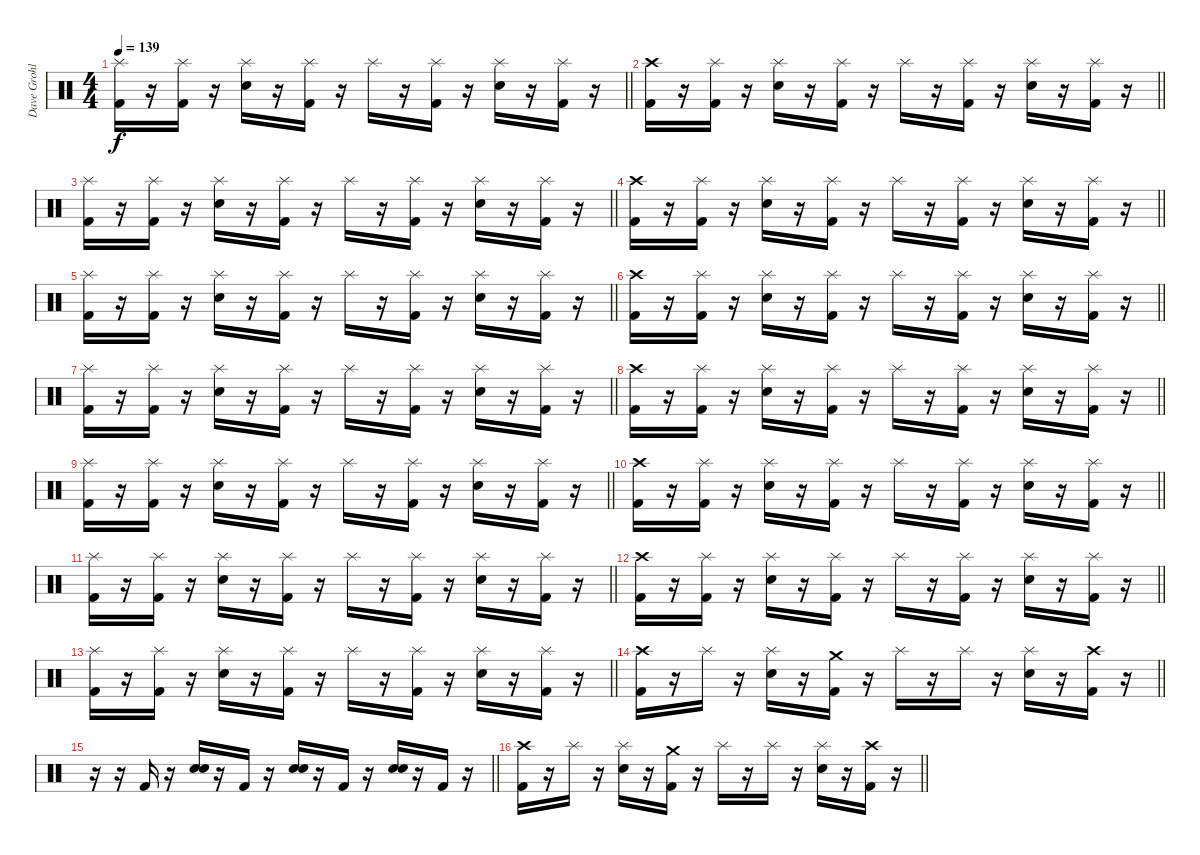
\track ("Dave Grohl" "Dave Grohl") {instrument percussion}
\staff {score}
\articulation defaults
\ts (4 4)
\tempo 139
\clef neutral
\barLineRight lightlight
\ks c
("Splash (hit)" "Kick (hit) 2").16{dy f} r.16 ("Splash (hit)" "Kick (hit) 2").16 r.16 ("Splash (hit)" "Electric Snare (hit)").16 r.16 ("Splash (hit)" "Kick (hit) 2").16 r.16 "Splash (hit)".16 r.16 ("Splash (hit)" "Kick (hit) 2").16 r.16 ("Splash (hit)" "Electric Snare (hit)").16 r.16 ("Splash (hit)" "Kick (hit) 2").16 r.16 |
\barLineRight lightlight
("Crash high (hit)" "Kick (hit) 2").16 r.16 ("Splash (hit)" "Kick (hit) 2").16 r.16 ("Splash (hit)" "Electric Snare (hit)").16 r.16 ("Splash (hit)" "Kick (hit) 2").16 r.16 "Splash (hit)".16 r.16 ("Splash (hit)" "Kick (hit) 2").16 r.16 ("Splash (hit)" "Electric Snare (hit)").16 r.16 ("Splash (hit)" "Kick (hit) 2").16 r.16 |
\barLineRight lightlight
("Splash (hit)" "Kick (hit) 2").16 r.16 ("Splash (hit)" "Kick (hit) 2").16 r.16 ("Splash (hit)" "Electric Snare (hit)").16 r.16 ("Splash (hit)" "Kick (hit) 2").16 r.16 "Splash (hit)".16 r.16 ("Splash (hit)" "Kick (hit) 2").16 r.16 ("Splash (hit)" "Electric Snare (hit)").16 r.16 ("Splash (hit)" "Kick (hit) 2").16 r.16 |
\barLineRight lightlight
("Crash high (hit)" "Kick (hit) 2").16 r.16 ("Splash (hit)" "Kick (hit) 2").16 r.16 ("Splash (hit)" "Electric Snare (hit)").16 r.16 ("Splash (hit)" "Kick (hit) 2").16 r.16 "Splash (hit)".16 r.16 ("Splash (hit)" "Kick (hit) 2").16 r.16 ("Splash (hit)" "Electric Snare (hit)").16 r.16 ("Splash (hit)" "Kick (hit) 2").16 r.16 |
\barLineRight lightlight
("Splash (hit)" "Kick (hit) 2").16 r.16 ("Splash (hit)" "Kick (hit) 2").16 r.16 ("Splash (hit)" "Electric Snare (hit)").16 r.16 ("Splash (hit)" "Kick (hit) 2").16 r.16 "Splash (hit)".16 r.16 ("Splash (hit)" "Kick (hit) 2").16 r.16 ("Splash (hit)" "Electric Snare (hit)").16 r.16 ("Splash (hit)" "Kick (hit) 2").16 r.16 |
\barLineRight lightlight
("Crash high (hit)" "Kick (hit) 2").16 r.16 ("Splash (hit)" "Kick (hit) 2").16 r.16 ("Splash (hit)" "Electric Snare (hit)").16 r.16 ("Splash (hit)" "Kick (hit) 2").16 r.16 "Splash (hit)".16 r.16 ("Splash (hit)" "Kick (hit) 2").16 r.16 ("Splash (hit)" "Electric Snare (hit)").16 r.16 ("Splash (hit)" "Kick (hit) 2").16 r.16 |
\barLineRight lightlight
("Splash (hit)" "Kick (hit) 2").16 r.16 ("Splash (hit)" "Kick (hit) 2").16 r.16 ("Splash (hit)" "Electric Snare (hit)").16 r.16 ("Splash (hit)" "Kick (hit) 2").16 r.16 "Splash (hit)".16 r.16 ("Splash (hit)" "Kick (hit) 2").16 r.16 ("Splash (hit)" "Electric Snare (hit)").16 r.16 ("Splash (hit)" "Kick (hit) 2").16 r.16 |
\barLineRight lightlight
("Crash high (hit)" "Kick (hit) 2").16 r.16 ("Splash (hit)" "Kick (hit) 2").16 r.16 ("Splash (hit)" "Electric Snare (hit)").16 r.16 ("Splash (hit)" "Kick (hit) 2").16 r.16 "Splash (hit)".16 r.16 ("Splash (hit)" "Kick (hit) 2").16 r.16 ("Splash (hit)" "Electric Snare (hit)").16 r.16 ("Splash (hit)" "Kick (hit) 2").16 r.16 |
\barLineRight lightlight
("Splash (hit)" "Kick (hit) 2").16 r.16 ("Splash (hit)" "Kick (hit) 2").16 r.16 ("Splash (hit)" "Electric Snare (hit)").16 r.16 ("Splash (hit)" "Kick (hit) 2").16 r.16 "Splash (hit)".16 r.16 ("Splash (hit)" "Kick (hit) 2").16 r.16 ("Splash (hit)" "Electric Snare (hit)").16 r.16 ("Splash (hit)" "Kick (hit) 2").16 r.16 |
\barLineRight lightlight
("Crash high (hit)" "Kick (hit) 2").16 r.16 ("Splash (hit)" "Kick (hit) 2").16 r.16 ("Splash (hit)" "Electric Snare (hit)").16 r.16 ("Splash (hit)" "Kick (hit) 2").16 r.16 "Splash (hit)".16 r.16 ("Splash (hit)" "Kick (hit) 2").16 r.16 ("Splash (hit)" "Electric Snare (hit)").16 r.16 ("Splash (hit)" "Kick (hit) 2").16 r.16 |
\barLineRight lightlight
("Splash (hit)" "Kick (hit) 2").16 r.16 ("Splash (hit)" "Kick (hit) 2").16 r.16 ("Splash (hit)" "Electric Snare (hit)").16 r.16 ("Splash (hit)" "Kick (hit) 2").16 r.16 "Splash (hit)".16 r.16 ("Splash (hit)" "Kick (hit) 2").16 r.16 ("Splash (hit)" "Electric Snare (hit)").16 r.16 ("Splash (hit)" "Kick (hit) 2").16 r.16 |
\barLineRight lightlight
("Crash high (hit)" "Kick (hit) 2").16 r.16 ("Splash (hit)" "Kick (hit) 2").16 r.16 ("Splash (hit)" "Electric Snare (hit)").16 r.16 ("Splash (hit)" "Kick (hit) 2").16 r.16 "Splash (hit)".16 r.16 ("Splash (hit)" "Kick (hit) 2").16 r.16 ("Splash (hit)" "Electric Snare (hit)").16 r.16 ("Splash (hit)" "Kick (hit) 2").16 r.16 |
\barLineRight lightlight
("Splash (hit)" "Kick (hit) 2").16 r.16 ("Splash (hit)" "Kick (hit) 2").16 r.16 ("Splash (hit)" "Electric Snare (hit)").16 r.16 ("Splash (hit)" "Kick (hit) 2").16 r.16 "Splash (hit)".16 r.16 ("Splash (hit)" "Kick (hit) 2").16 r.16 ("Splash (hit)" "Electric Snare (hit)").16 r.16 ("Splash (hit)" "Kick (hit) 2").16 r.16 |
\barLineRight lightlight
("Crash high (hit)" "Kick (hit) 2").16 r.16 "Splash (hit)".16 r.16 ("Splash (hit)" "Electric Snare (hit)").16 r.16 ("Crash medium (hit)" "Kick (hit) 2").16 r.16 "Splash (hit)".16 r.16 "Splash (hit)".16 r.16 ("Splash (hit)" "Electric Snare (hit)").16 r.16 ("Crash high (hit)" "Kick (hit) 2").16 r.16 |
\barLineRight lightlight
r.16 r.16 "Kick (hit) 2".16 r.16 ("Electric Snare (hit)" "Electric Snare (hit)").16 r.16 "Kick (hit) 2".16 r.16 ("Electric Snare (hit)" "Electric Snare (hit)").16 r.16 "Kick (hit) 2".16 r.16 ("Electric Snare (hit)" "Electric Snare (hit)").16 r.16 "Kick (hit) 2".16 r.16 |
\barLineRight lightlight
("Crash high (hit)" "Kick (hit) 2").16 r.16 "Splash (hit)".16 r.16 ("Splash (hit)" "Electric Snare (hit)").16 r.16 ("Crash medium (hit)" "Kick (hit) 2").16 r.16 "Splash (hit)".16 r.16 "Splash (hit)".16 r.16 ("Splash (hit)" "Electric Snare (hit)").16 r.16 ("Crash high (hit)" "Kick (hit) 2").16 r.16
